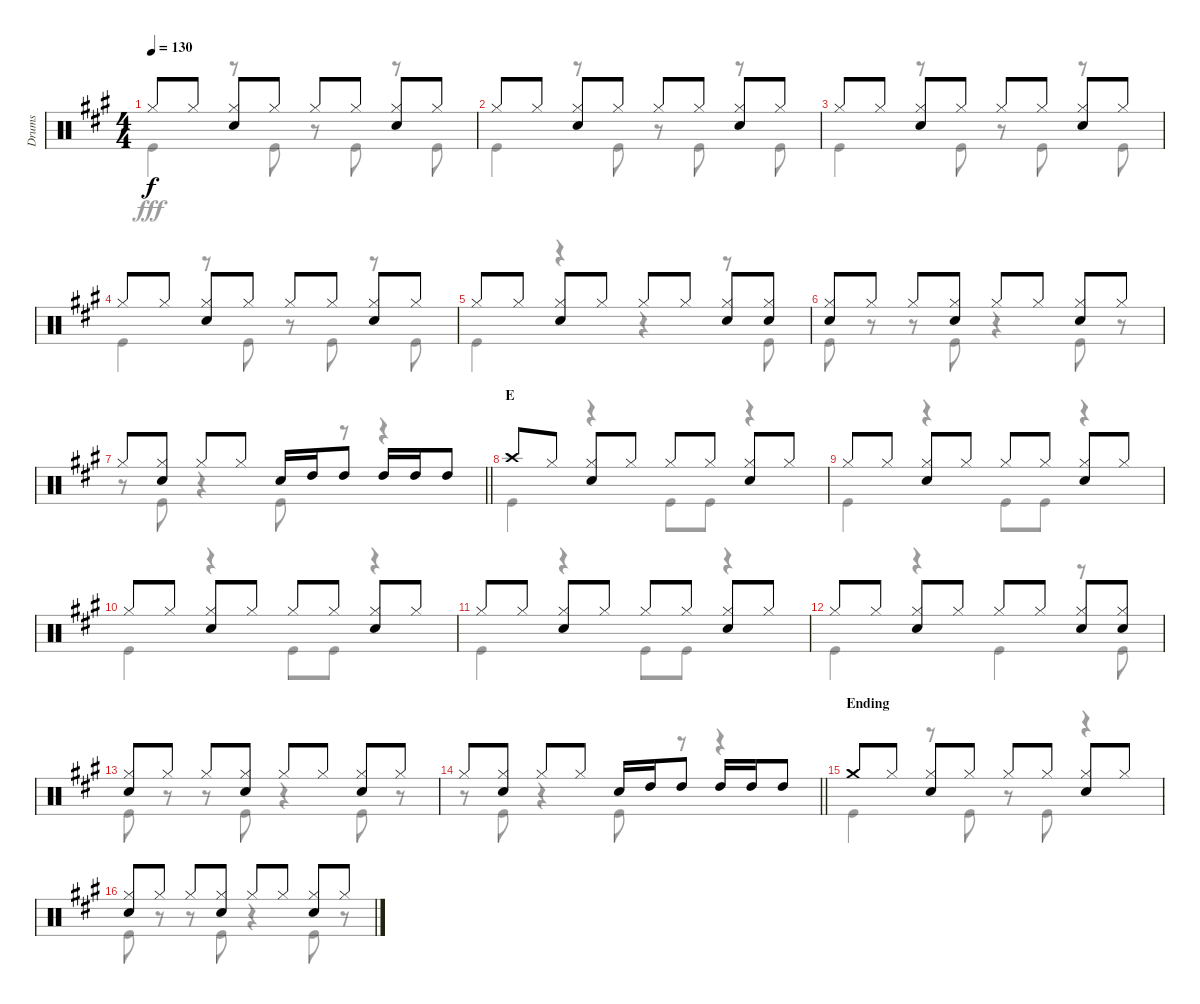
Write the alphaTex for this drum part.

\track ("Drums" "Drums") {instrument percussion}
\staff {score}
\articulation defaults
\voice
\ts (4 4)
\tempo 130
\clef neutral
\ks a "Hi-Hat (closed)".8{dy f} "Hi-Hat (closed)".8
("Hi-Hat (closed)" "Snare (hit) 2").8 "Hi-Hat (closed)".8 "Hi-Hat (closed)".8 "Hi-Hat (closed)".8 ("Hi-Hat (closed)" "Snare (hit) 2").8 "Hi-Hat (closed)".8 |
"Hi-Hat (closed)".8 "Hi-Hat (closed)".8 ("Hi-Hat (closed)" "Snare (hit) 2").8 "Hi-Hat (closed)".8 "Hi-Hat (closed)".8 "Hi-Hat (closed)".8 ("Hi-Hat (closed)" "Snare (hit) 2").8 "Hi-Hat (closed)".8 |
"Hi-Hat (closed)".8 "Hi-Hat (closed)".8 ("Hi-Hat (closed)" "Snare (hit) 2").8 "Hi-Hat (closed)".8 "Hi-Hat (closed)".8 "Hi-Hat (closed)".8 ("Hi-Hat (closed)" "Snare (hit) 2").8 "Hi-Hat (closed)".8 |
"Hi-Hat (closed)".8 "Hi-Hat (closed)".8 ("Hi-Hat (closed)" "Snare (hit) 2").8 "Hi-Hat (closed)".8 "Hi-Hat (closed)".8 "Hi-Hat (closed)".8 ("Hi-Hat (closed)" "Snare (hit) 2").8 "Hi-Hat (closed)".8 |
"Hi-Hat (closed)".8 "Hi-Hat (closed)".8 ("Hi-Hat (closed)" "Snare (hit) 2").8 "Hi-Hat (closed)".8 "Hi-Hat (closed)".8 "Hi-Hat (closed)".8 ("Hi-Hat (closed)" "Snare (hit) 2").8 ("Hi-Hat (closed)" "Snare (hit) 2").8 |
("Hi-Hat (closed)" "Snare (hit) 2").8 "Hi-Hat (closed)".8 "Hi-Hat (closed)".8 ("Hi-Hat (closed)" "Snare (hit) 2").8 "Hi-Hat (closed)".8 "Hi-Hat (closed)".8 ("Hi-Hat (closed)" "Snare (hit) 2").8 "Hi-Hat (closed)".8 |
\barLineRight lightlight "Hi-Hat (closed)".8
("Hi-Hat (closed)" "Snare (hit) 2").8 "Hi-Hat (closed)".8 "Hi-Hat (closed)".8 "Snare (hit) 2".16 "High Tom (hit)".16 "High Tom (hit)".8 "High Tom (hit)".16 "High Tom (hit)".16 "High Tom (hit)".8 |
\section ("" "E")
"Crash high (hit)".8 "Hi-Hat (closed)".8 ("Hi-Hat (closed)" "Snare (hit) 2").8 "Hi-Hat (closed)".8 "Hi-Hat (closed)".8 "Hi-Hat (closed)".8 ("Hi-Hat (closed)" "Snare (hit) 2").8 "Hi-Hat (closed)".8 |
"Hi-Hat (closed)".8 "Hi-Hat (closed)".8 ("Hi-Hat (closed)" "Snare (hit) 2").8 "Hi-Hat (closed)".8 "Hi-Hat (closed)".8 "Hi-Hat (closed)".8 ("Hi-Hat (closed)" "Snare (hit) 2").8 "Hi-Hat (closed)".8 |
"Hi-Hat (closed)".8 "Hi-Hat (closed)".8 ("Hi-Hat (closed)" "Snare (hit) 2").8 "Hi-Hat (closed)".8 "Hi-Hat (closed)".8 "Hi-Hat (closed)".8 ("Hi-Hat (closed)" "Snare (hit) 2").8 "Hi-Hat (closed)".8 |
"Hi-Hat (closed)".8 "Hi-Hat (closed)".8 ("Hi-Hat (closed)" "Snare (hit) 2").8 "Hi-Hat (closed)".8 "Hi-Hat (closed)".8 "Hi-Hat (closed)".8 ("Hi-Hat (closed)" "Snare (hit) 2").8 "Hi-Hat (closed)".8 |
"Hi-Hat (closed)".8 "Hi-Hat (closed)".8 ("Hi-Hat (closed)" "Snare (hit) 2").8 "Hi-Hat (closed)".8 "Hi-Hat (closed)".8 "Hi-Hat (closed)".8 ("Hi-Hat (closed)" "Snare (hit) 2").8 ("Hi-Hat (closed)" "Snare (hit) 2").8 |
("Hi-Hat (closed)" "Snare (hit) 2").8 "Hi-Hat (closed)".8 "Hi-Hat (closed)".8 ("Hi-Hat (closed)" "Snare (hit) 2").8 "Hi-Hat (closed)".8 "Hi-Hat (closed)".8 ("Hi-Hat (closed)" "Snare (hit) 2").8 "Hi-Hat (closed)".8 |
\barLineRight lightlight "Hi-Hat (closed)".8
("Hi-Hat (closed)" "Snare (hit) 2").8 "Hi-Hat (closed)".8 "Hi-Hat (closed)".8 "Snare (hit) 2".16 "High Tom (hit)".16 "High Tom (hit)".8 "High Tom (hit)".16 "High Tom (hit)".16 "High Tom (hit)".8 |
\section ("" "Ending")
"Crash medium (hit)".8 "Hi-Hat (closed)".8 ("Hi-Hat (closed)" "Snare (hit) 2").8 "Hi-Hat (closed)".8 "Hi-Hat (closed)".8 "Hi-Hat (closed)".8 ("Hi-Hat (closed)" "Snare (hit) 2").8 "Hi-Hat (closed)".8 |
("Hi-Hat (closed)" "Snare (hit) 2").8 "Hi-Hat (closed)".8 "Hi-Hat (closed)".8 ("Hi-Hat (closed)" "Snare (hit) 2").8 "Hi-Hat (closed)".8 "Hi-Hat (closed)".8 ("Hi-Hat (closed)" "Snare (hit) 2").8 "Hi-Hat (closed)".8
\voice
\clef neutral
\ottava regular
\simile none
\ks a "Kick (hit)".4{dy fff}
r.8 "Kick (hit)".8 r.8 "Kick (hit)".8 r.8 "Kick (hit)".8 |
"Kick (hit)".4 r.8 "Kick (hit)".8 r.8 "Kick (hit)".8 r.8 "Kick (hit)".8 |
"Kick (hit)".4 r.8 "Kick (hit)".8 r.8 "Kick (hit)".8 r.8 "Kick (hit)".8 |
"Kick (hit)".4 r.8 "Kick (hit)".8 r.8 "Kick (hit)".8 r.8 "Kick (hit)".8 |
"Kick (hit)".4 r.4 r.4 r.8 "Kick (hit)".8 |
"Kick (hit)".8 r.8 r.8 "Kick (hit)".8 r.4 "Kick (hit)".8 r.8 |
\barLineRight lightlight
r.8 "Kick (hit)".8 r.4 "Kick (hit)".8 r.8 r.4 |
"Kick (hit)".4 r.4 "Kick (hit)".8 "Kick (hit)".8 r.4 |
"Kick (hit)".4 r.4 "Kick (hit)".8 "Kick (hit)".8 r.4 |
"Kick (hit)".4 r.4 "Kick (hit)".8 "Kick (hit)".8 r.4 |
"Kick (hit)".4 r.4 "Kick (hit)".8 "Kick (hit)".8 r.4 |
"Kick (hit)".4 r.4 "Kick (hit)".4 r.8 "Kick (hit)".8 |
"Kick (hit)".8 r.8 r.8 "Kick (hit)".8 r.4 "Kick (hit)".8 r.8 |
\barLineRight lightlight
r.8 "Kick (hit)".8 r.4 "Kick (hit)".8 r.8 r.4 |
"Kick (hit)".4 r.8 "Kick (hit)".8 r.8 "Kick (hit)".8 r.4 |
"Kick (hit)".8 r.8 r.8 "Kick (hit)".8 r.4 "Kick (hit)".8 r.8
